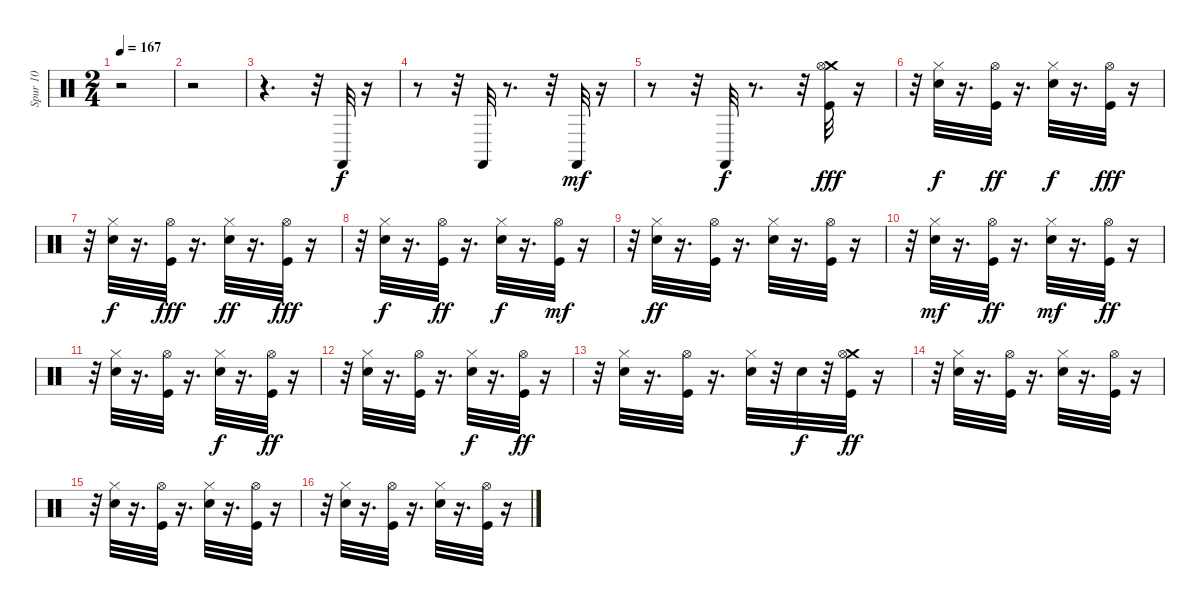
\track ("Spur 10" "Spur 10") {instrument percussion}
\staff {score}
\articulation defaults
\ts (2 4)
\tempo 167
\clef neutral
\ks c
r.2{dy f} |
r.2 |
r.4{d} r.32 "Castanets (hit)".32{volume 12 balance 8} r.16 |
r.8 r.32 "Castanets (hit)".32 r.8{d} r.32 "Castanets (hit)".32{dy mf} r.16 |
r.8 r.32 "Castanets (hit)".32{dy f} r.8{d} r.32 ("Crash medium (hit)" "Kick (hit)" "Hi-Hat (open)").32{dy fff} r.16 |
r.32 ("Snare (hit) 2" "Hi-Hat (closed)").32{dy f} r.16{d} ("Kick (hit)" "Hi-Hat (open)").32{dy ff} r.16{d} ("Snare (hit) 2" "Hi-Hat (closed)").32{dy f} r.16{d} ("Hi-Hat (open)" "Kick (hit)").32{dy fff} r.16 |
r.32 ("Snare (hit) 2" "Hi-Hat (closed)").32{dy f} r.16{d} ("Hi-Hat (open)" "Kick (hit)").32{dy fff} r.16{d} ("Snare (hit) 2" "Hi-Hat (closed)").32{dy ff} r.16{d} ("Kick (hit)" "Hi-Hat (open)").32{dy fff} r.16 |
r.32 ("Hi-Hat (closed)" "Snare (hit) 2").32{dy f} r.16{d} ("Hi-Hat (open)" "Kick (hit)").32{dy ff} r.16{d} ("Snare (hit) 2" "Hi-Hat (closed)").32{dy f} r.16{d} ("Kick (hit)" "Hi-Hat (open)").32{dy mf} r.16 |
r.32 ("Snare (hit) 2" "Hi-Hat (closed)").32{dy ff} r.16{d} ("Hi-Hat (open)" "Kick (hit)").32 r.16{d} ("Hi-Hat (closed)" "Snare (hit) 2").32 r.16{d} ("Kick (hit)" "Hi-Hat (open)").32 r.16 |
r.32 ("Snare (hit) 2" "Hi-Hat (closed)").32{dy mf} r.16{d} ("Hi-Hat (open)" "Kick (hit)").32{dy ff} r.16{d} ("Snare (hit) 2" "Hi-Hat (closed)").32{dy mf} r.16{d} ("Hi-Hat (open)" "Kick (hit)").32{dy ff} r.16 |
r.32 ("Hi-Hat (closed)" "Snare (hit) 2").32 r.16{d} ("Hi-Hat (open)" "Kick (hit)").32 r.16{d} ("Snare (hit) 2" "Hi-Hat (closed)").32{dy f} r.16{d} ("Kick (hit)" "Hi-Hat (open)").32{dy ff} r.16 |
r.32 ("Snare (hit) 2" "Hi-Hat (closed)").32 r.16{d} ("Hi-Hat (open)" "Kick (hit)").32 r.16{d} ("Hi-Hat (closed)" "Snare (hit) 2").32{dy f} r.16{d} ("Kick (hit)" "Hi-Hat (open)").32{dy ff} r.16 |
r.32 ("Snare (hit) 2" "Hi-Hat (closed)").32 r.16{d} ("Hi-Hat (open)" "Kick (hit)").32 r.16{d} ("Hi-Hat (closed)" "Snare (hit) 2").32 r.32 "Snare (hit) 2".32{dy f} r.32 ("Crash medium (hit)" "Kick (hit)" "Hi-Hat (open)").32{dy ff} r.16 |
r.32 ("Hi-Hat (closed)" "Snare (hit) 2").32 r.16{d} ("Hi-Hat (open)" "Kick (hit)").32 r.16{d} ("Hi-Hat (closed)" "Snare (hit) 2").32 r.16{d} ("Kick (hit)" "Hi-Hat (open)").32 r.16 |
r.32 ("Hi-Hat (closed)" "Snare (hit) 2").32 r.16{d} ("Hi-Hat (open)" "Kick (hit)").32 r.16{d} ("Hi-Hat (closed)" "Snare (hit) 2").32 r.16{d} ("Hi-Hat (open)" "Kick (hit)").32 r.16 |
r.32 ("Snare (hit) 2" "Hi-Hat (closed)").32 r.16{d} ("Kick (hit)" "Hi-Hat (open)").32 r.16{d} ("Snare (hit) 2" "Hi-Hat (closed)").32 r.16{d} ("Kick (hit)" "Hi-Hat (open)").32 r.16
